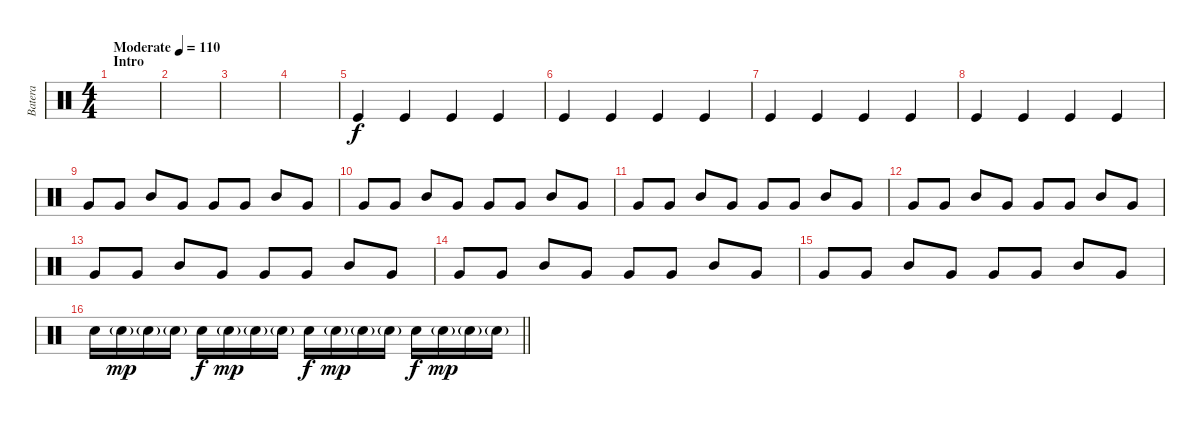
\track ("Batera" "Batera") {instrument percussion}
\staff {score}
\articulation defaults
\ts (4 4)
\section ("" "Intro")
\tempo (110 "Moderate")
\clef neutral
\ks c
|
|
|
|
"Kick (hit)".4 "Kick (hit)".4 "Kick (hit)".4 "Kick (hit)".4 |
"Kick (hit)".4 "Kick (hit)".4 "Kick (hit)".4 "Kick (hit)".4 |
"Kick (hit)".4 "Kick (hit)".4 "Kick (hit)".4 "Kick (hit)".4 |
"Kick (hit)".4 "Kick (hit)".4 "Kick (hit)".4 "Kick (hit)".4 |
"Very Low Tom (hit)".8 "Very Low Tom (hit)".8 "Mid Tom (hit)".8 "Very Low Tom (hit)".8 "Very Low Tom (hit)".8 "Very Low Tom (hit)".8 "Mid Tom (hit)".8 "Very Low Tom (hit)".8 |
"Very Low Tom (hit)".8 "Very Low Tom (hit)".8 "Mid Tom (hit)".8 "Very Low Tom (hit)".8 "Very Low Tom (hit)".8 "Very Low Tom (hit)".8 "Mid Tom (hit)".8 "Very Low Tom (hit)".8 |
"Very Low Tom (hit)".8 "Very Low Tom (hit)".8 "Mid Tom (hit)".8 "Very Low Tom (hit)".8 "Very Low Tom (hit)".8 "Very Low Tom (hit)".8 "Mid Tom (hit)".8 "Very Low Tom (hit)".8 |
"Very Low Tom (hit)".8 "Very Low Tom (hit)".8 "Mid Tom (hit)".8 "Very Low Tom (hit)".8 "Very Low Tom (hit)".8 "Very Low Tom (hit)".8 "Mid Tom (hit)".8 "Very Low Tom (hit)".8 |
"Very Low Tom (hit)".8 "Very Low Tom (hit)".8 "Mid Tom (hit)".8 "Very Low Tom (hit)".8 "Very Low Tom (hit)".8 "Very Low Tom (hit)".8 "Mid Tom (hit)".8 "Very Low Tom (hit)".8 |
"Very Low Tom (hit)".8 "Very Low Tom (hit)".8 "Mid Tom (hit)".8 "Very Low Tom (hit)".8 "Very Low Tom (hit)".8 "Very Low Tom (hit)".8 "Mid Tom (hit)".8 "Very Low Tom (hit)".8 |
"Very Low Tom (hit)".8 "Very Low Tom (hit)".8 "Mid Tom (hit)".8 "Very Low Tom (hit)".8 "Very Low Tom (hit)".8 "Very Low Tom (hit)".8 "Mid Tom (hit)".8 "Very Low Tom (hit)".8 |
\barLineRight lightlight "Snare (hit) 2".16 "Snare (hit) 2"{g}.16{dy mp} "Snare (hit) 2"{g}.16 "Snare (hit) 2"{g}.16 "Snare (hit) 2".16{dy f} "Snare (hit) 2"{g}.16{dy mp} "Snare (hit) 2"{g}.16 "Snare (hit) 2"{g}.16 "Snare (hit) 2".16{dy f} "Snare (hit) 2"{g}.16{dy mp} "Snare (hit) 2"{g}.16 "Snare (hit) 2"{g}.16 "Snare (hit) 2".16{dy f} "Snare (hit) 2"{g}.16{dy mp} "Snare (hit) 2"{g}.16 "Snare (hit) 2"{g}.16
